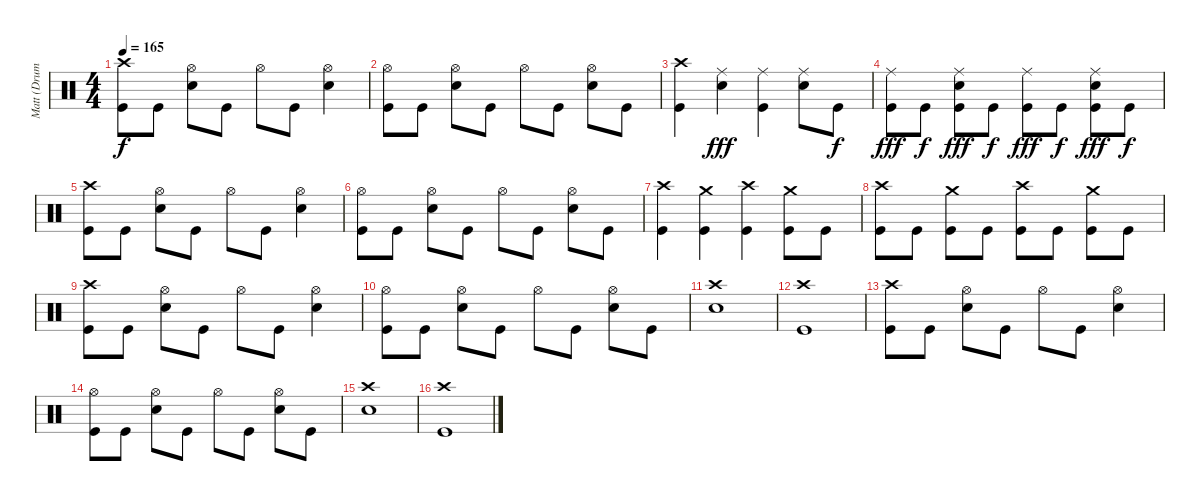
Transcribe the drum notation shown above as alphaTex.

\track ("Matt (Drums)" "Matt (Drum") {instrument percussion}
\staff {score}
\articulation defaults
\ts (4 4)
\tempo 165
\clef neutral
\ks c
("Crash high (hit)" "Kick (hit)").8{dy f} "Kick (hit)".8 ("Hi-Hat (open)" "Electric Snare (hit)").8 "Kick (hit)".8 "Hi-Hat (open)".8 "Kick (hit)".8 ("Hi-Hat (open)" "Electric Snare (hit)").4 |
("Hi-Hat (open)" "Kick (hit)").8 "Kick (hit)".8 ("Hi-Hat (open)" "Electric Snare (hit)").8 "Kick (hit)".8 "Hi-Hat (open)".8 "Kick (hit)".8 ("Hi-Hat (open)" "Electric Snare (hit)").8 "Kick (hit)".8 |
("Crash high (hit)" "Kick (hit)").4 ("Ride (middle)" "Electric Snare (hit)").4{dy fff} ("Ride (middle)" "Kick (hit)").4 ("Ride (middle)" "Electric Snare (hit)").8 "Kick (hit)".8{dy f} |
("Ride (middle)" "Kick (hit)").8{dy fff} "Kick (hit)".8{dy f} ("Ride (middle)" "Electric Snare (hit)" "Kick (hit)").8{dy fff} "Kick (hit)".8{dy f} ("Ride (middle)" "Kick (hit)").8{dy fff} "Kick (hit)".8{dy f} ("Ride (middle)" "Electric Snare (hit)" "Kick (hit)").8{dy fff} "Kick (hit)".8{dy f} |
("Crash high (hit)" "Kick (hit)").8 "Kick (hit)".8 ("Hi-Hat (open)" "Electric Snare (hit)").8 "Kick (hit)".8 "Hi-Hat (open)".8 "Kick (hit)".8 ("Hi-Hat (open)" "Electric Snare (hit)").4 |
("Hi-Hat (open)" "Kick (hit)").8 "Kick (hit)".8 ("Hi-Hat (open)" "Electric Snare (hit)").8 "Kick (hit)".8 "Hi-Hat (open)".8 "Kick (hit)".8 ("Hi-Hat (open)" "Electric Snare (hit)").8 "Kick (hit)".8 |
("Crash high (hit)" "Kick (hit)").4 ("Crash medium (hit)" "Kick (hit)").4 ("Crash high (hit)" "Kick (hit)").4 ("Crash medium (hit)" "Kick (hit)").8 "Kick (hit)".8 |
("Crash high (hit)" "Kick (hit)").8 "Kick (hit)".8 ("Crash medium (hit)" "Kick (hit)").8 "Kick (hit)".8 ("Crash high (hit)" "Kick (hit)").8 "Kick (hit)".8 ("Crash medium (hit)" "Kick (hit)").8 "Kick (hit)".8 |
("Crash high (hit)" "Kick (hit)").8 "Kick (hit)".8 ("Hi-Hat (open)" "Electric Snare (hit)").8 "Kick (hit)".8 "Hi-Hat (open)".8 "Kick (hit)".8 ("Hi-Hat (open)" "Electric Snare (hit)").4 |
("Hi-Hat (open)" "Kick (hit)").8 "Kick (hit)".8 ("Hi-Hat (open)" "Electric Snare (hit)").8 "Kick (hit)".8 "Hi-Hat (open)".8 "Kick (hit)".8 ("Hi-Hat (open)" "Electric Snare (hit)").8 "Kick (hit)".8 |
("Crash high (hit)" "Electric Snare (hit)").1 |
("Crash high (hit)" "Kick (hit)").1 |
("Crash high (hit)" "Kick (hit)").8 "Kick (hit)".8 ("Hi-Hat (open)" "Electric Snare (hit)").8 "Kick (hit)".8 "Hi-Hat (open)".8 "Kick (hit)".8 ("Hi-Hat (open)" "Electric Snare (hit)").4 |
("Hi-Hat (open)" "Kick (hit)").8 "Kick (hit)".8 ("Hi-Hat (open)" "Electric Snare (hit)").8 "Kick (hit)".8 "Hi-Hat (open)".8 "Kick (hit)".8 ("Hi-Hat (open)" "Electric Snare (hit)").8 "Kick (hit)".8 |
("Crash high (hit)" "Electric Snare (hit)").1 |
("Crash high (hit)" "Kick (hit)").1
